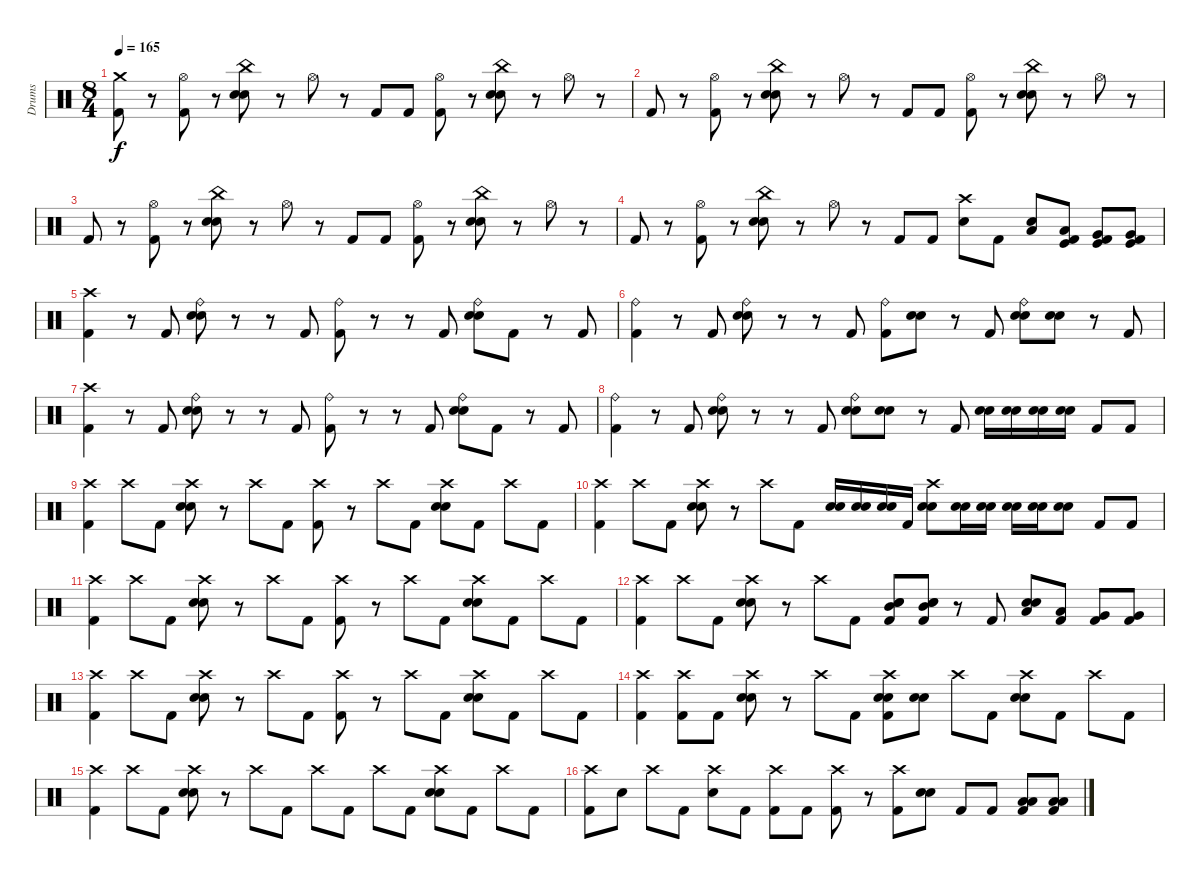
\track ("Drums" "Drums") {instrument percussion}
\staff {score}
\articulation defaults
\ts (8 4)
\tempo 165
\clef neutral
\ks c
("Crash medium (hit)" "Kick (hit) 2").8{dy f} r.8 ("Hi-Hat (open)" "Kick (hit) 2").8 r.8 ("China (hit)" "Electric Snare (hit)" "Snare (hit) 2").8 r.8 "Hi-Hat (open)".8 r.8 "Kick (hit) 2".8 "Kick (hit) 2".8 ("Hi-Hat (open)" "Kick (hit) 2").8 r.8 ("China (hit)" "Electric Snare (hit)" "Snare (hit) 2").8 r.8 "Hi-Hat (open)".8 r.8 |
"Kick (hit) 2".8 r.8 ("Hi-Hat (open)" "Kick (hit) 2").8 r.8 ("China (hit)" "Electric Snare (hit)" "Snare (hit) 2").8 r.8 "Hi-Hat (open)".8 r.8 "Kick (hit) 2".8 "Kick (hit) 2".8 ("Hi-Hat (open)" "Kick (hit) 2").8 r.8 ("China (hit)" "Electric Snare (hit)" "Snare (hit) 2").8 r.8 "Hi-Hat (open)".8 r.8 |
"Kick (hit) 2".8 r.8 ("Hi-Hat (open)" "Kick (hit) 2").8 r.8 ("China (hit)" "Electric Snare (hit)" "Snare (hit) 2").8 r.8 "Hi-Hat (open)".8 r.8 "Kick (hit) 2".8 "Kick (hit) 2".8 ("Hi-Hat (open)" "Kick (hit) 2").8 r.8 ("China (hit)" "Electric Snare (hit)" "Snare (hit) 2").8 r.8 "Hi-Hat (open)".8 r.8 |
"Kick (hit) 2".8 r.8 ("Hi-Hat (open)" "Kick (hit) 2").8 r.8 ("China (hit)" "Electric Snare (hit)" "Snare (hit) 2").8 r.8 "Hi-Hat (open)".8 r.8 "Kick (hit) 2".8 "Kick (hit) 2".8 ("Crash high (hit)" "Snare (hit) 2").8 "Kick (hit) 2".8 ("Low Tom (hit)" "Snare (hit) 2").8 ("Low Tom (hit)" "Kick (hit)" "Kick (hit) 2").8 ("Very Low Tom (hit)" "Kick (hit)" "Kick (hit) 2").8 ("Very Low Tom (hit)" "Kick (hit)" "Kick (hit) 2").8 |
("Crash high (hit)" "Kick (hit) 2").4 r.8 "Kick (hit) 2".8 ("Ride (bell)" "Electric Snare (hit)" "Snare (hit) 2").8 r.8 r.8 "Kick (hit) 2".8 ("Ride (bell)" "Kick (hit) 2").8 r.8 r.8 "Kick (hit) 2".8 ("Ride (bell)" "Electric Snare (hit)" "Snare (hit) 2").8 "Kick (hit) 2".8 r.8 "Kick (hit) 2".8 |
("Ride (bell)" "Kick (hit) 2").4 r.8 "Kick (hit) 2".8 ("Ride (bell)" "Electric Snare (hit)" "Snare (hit) 2").8 r.8 r.8 "Kick (hit) 2".8 ("Ride (bell)" "Kick (hit) 2").8 ("Electric Snare (hit)" "Snare (hit) 2").8 r.8 "Kick (hit) 2".8 ("Ride (bell)" "Electric Snare (hit)" "Snare (hit) 2").8 ("Electric Snare (hit)" "Snare (hit) 2").8 r.8 "Kick (hit) 2".8 |
("Crash high (hit)" "Kick (hit) 2").4 r.8 "Kick (hit) 2".8 ("Ride (bell)" "Electric Snare (hit)" "Snare (hit) 2").8 r.8 r.8 "Kick (hit) 2".8 ("Ride (bell)" "Kick (hit) 2").8 r.8 r.8 "Kick (hit) 2".8 ("Ride (bell)" "Electric Snare (hit)" "Snare (hit) 2").8 "Kick (hit) 2".8 r.8 "Kick (hit) 2".8 |
("Ride (bell)" "Kick (hit) 2").4 r.8 "Kick (hit) 2".8 ("Ride (bell)" "Electric Snare (hit)" "Snare (hit) 2").8 r.8 r.8 "Kick (hit) 2".8 ("Ride (bell)" "Electric Snare (hit)" "Snare (hit) 2").8 ("Electric Snare (hit)" "Snare (hit) 2").8 r.8 "Kick (hit) 2".8 ("Electric Snare (hit)" "Snare (hit) 2").16 ("Electric Snare (hit)" "Snare (hit) 2").16 ("Electric Snare (hit)" "Snare (hit) 2").16 ("Electric Snare (hit)" "Snare (hit) 2").16 "Kick (hit) 2".8 "Kick (hit) 2".8 |
("Crash high (hit)" "Kick (hit) 2").4 "Crash high (hit)".8 "Kick (hit) 2".8 ("Crash high (hit)" "Electric Snare (hit)" "Snare (hit) 2").8 r.8 "Crash high (hit)".8 "Kick (hit) 2".8 ("Crash high (hit)" "Kick (hit) 2").8 r.8 "Crash high (hit)".8 "Kick (hit) 2".8 ("Crash high (hit)" "Electric Snare (hit)" "Snare (hit) 2").8 "Kick (hit) 2".8 "Crash high (hit)".8 "Kick (hit) 2".8 |
("Crash high (hit)" "Kick (hit) 2").4 "Crash high (hit)".8 "Kick (hit) 2".8 ("Crash high (hit)" "Electric Snare (hit)" "Snare (hit) 2").8 r.8 "Crash high (hit)".8 "Kick (hit) 2".8 ("Electric Snare (hit)" "Snare (hit) 2").16 ("Electric Snare (hit)" "Snare (hit) 2").16 ("Electric Snare (hit)" "Snare (hit) 2").16 "Kick (hit) 2".16 ("Crash high (hit)" "Electric Snare (hit)" "Snare (hit) 2").8 ("Electric Snare (hit)" "Snare (hit) 2").16 ("Electric Snare (hit)" "Snare (hit) 2").16 ("Electric Snare (hit)" "Snare (hit) 2").16 ("Electric Snare (hit)" "Snare (hit) 2").16 ("Electric Snare (hit)" "Snare (hit) 2").8 "Kick (hit) 2".8 "Kick (hit) 2".8 |
("Crash high (hit)" "Kick (hit) 2").4 "Crash high (hit)".8 "Kick (hit) 2".8 ("Crash high (hit)" "Electric Snare (hit)" "Snare (hit) 2").8 r.8 "Crash high (hit)".8 "Kick (hit) 2".8 ("Crash high (hit)" "Kick (hit) 2").8 r.8 "Crash high (hit)".8 "Kick (hit) 2".8 ("Crash high (hit)" "Electric Snare (hit)" "Snare (hit) 2").8 "Kick (hit) 2".8 "Crash high (hit)".8 "Kick (hit) 2".8 |
("Crash high (hit)" "Kick (hit) 2").4 "Crash high (hit)".8 "Kick (hit) 2".8 ("Crash high (hit)" "Electric Snare (hit)" "Snare (hit) 2").8 r.8 "Crash high (hit)".8 "Kick (hit) 2".8 ("Mid Tom (hit)" "Electric Snare (hit)" "Snare (hit) 2" "Kick (hit) 2").8 ("Mid Tom (hit)" "Electric Snare (hit)" "Snare (hit) 2" "Kick (hit) 2").8 r.8 "Kick (hit) 2".8 ("Low Tom (hit)" "Electric Snare (hit)" "Snare (hit) 2").8 ("Low Tom (hit)" "Kick (hit) 2").8 ("Very Low Tom (hit)" "Kick (hit) 2").8 ("Very Low Tom (hit)" "Kick (hit) 2").8 |
("Crash high (hit)" "Kick (hit) 2").4 "Crash high (hit)".8 "Kick (hit) 2".8 ("Crash high (hit)" "Electric Snare (hit)" "Snare (hit) 2").8 r.8 "Crash high (hit)".8 "Kick (hit) 2".8 ("Crash high (hit)" "Kick (hit) 2").8 r.8 "Crash high (hit)".8 "Kick (hit) 2".8 ("Crash high (hit)" "Electric Snare (hit)" "Snare (hit) 2").8 "Kick (hit) 2".8 "Crash high (hit)".8 "Kick (hit) 2".8 |
("Crash high (hit)" "Kick (hit) 2").4 ("Crash high (hit)" "Kick (hit) 2").8 "Kick (hit) 2".8 ("Crash high (hit)" "Electric Snare (hit)" "Snare (hit) 2").8 r.8 "Crash high (hit)".8 "Kick (hit) 2".8 ("Crash high (hit)" "Electric Snare (hit)" "Snare (hit) 2" "Kick (hit) 2").8 ("Electric Snare (hit)" "Snare (hit) 2").8 "Crash high (hit)".8 "Kick (hit) 2".8 ("Crash high (hit)" "Electric Snare (hit)" "Snare (hit) 2").8 "Kick (hit) 2".8 "Crash high (hit)".8 "Kick (hit) 2".8 |
("Crash high (hit)" "Kick (hit) 2").4 "Crash high (hit)".8 "Kick (hit) 2".8 ("Crash high (hit)" "Electric Snare (hit)" "Snare (hit) 2").8 r.8 "Crash high (hit)".8 "Kick (hit) 2".8 "Crash high (hit)".8 "Kick (hit) 2".8 "Crash high (hit)".8 "Kick (hit) 2".8 ("Crash high (hit)" "Electric Snare (hit)" "Snare (hit) 2").8 "Kick (hit) 2".8 "Crash high (hit)".8 "Kick (hit) 2".8 |
("Crash high (hit)" "Kick (hit) 2").8 "Snare (hit) 2".8 "Crash high (hit)".8 "Kick (hit) 2".8 ("Crash high (hit)" "Snare (hit) 2").8 "Kick (hit) 2".8 ("Crash high (hit)" "Kick (hit) 2").8 "Kick (hit) 2".8 ("Crash high (hit)" "Kick (hit) 2").8 r.8 ("Crash high (hit)" "Kick (hit) 2").8 ("Electric Snare (hit)" "Snare (hit) 2").8 "Kick (hit) 2".8 "Kick (hit) 2".8 ("Low Floor Tom (hit)" "Low Tom (hit)" "Kick (hit) 2").8 ("Low Floor Tom (hit)" "Low Tom (hit)" "Kick (hit) 2").8
